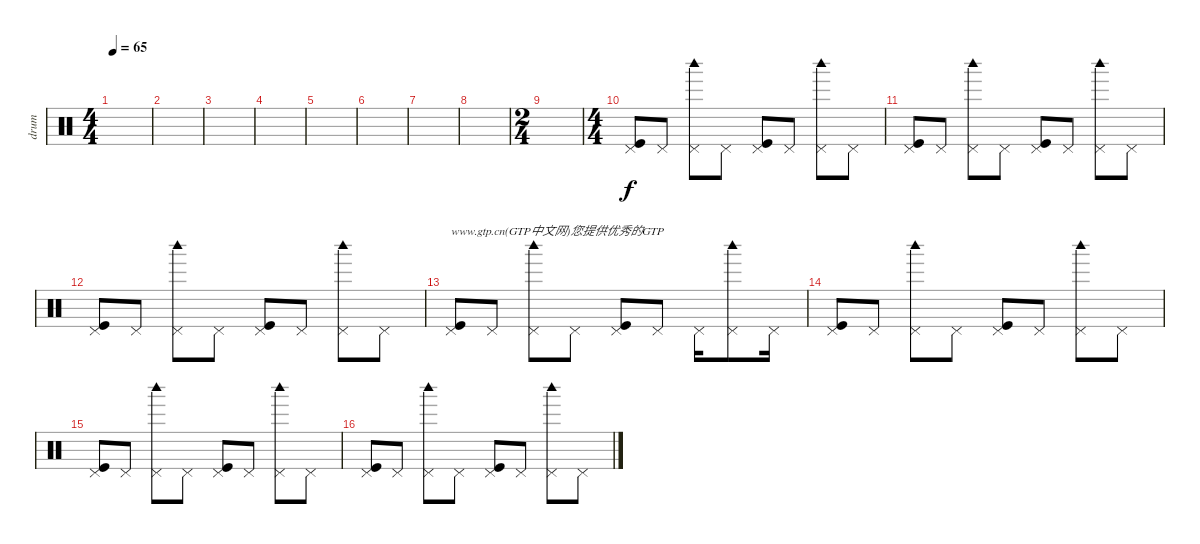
\track ("drum" "drum") {instrument percussion}
\staff {score}
\articulation defaults
\ts (4 4)
\tempo 65
\clef neutral
\ks c
|
|
|
|
|
|
|
|
\ts (2 4)
|
\ts (4 4)
("Pedal Hi-Hat (hit)" "Kick (hit)").8 "Pedal Hi-Hat (hit)".8 ("Pedal Hi-Hat (hit)" "Woodblock high (hit)").8 "Pedal Hi-Hat (hit)".8 ("Pedal Hi-Hat (hit)" "Kick (hit)").8 "Pedal Hi-Hat (hit)".8 ("Pedal Hi-Hat (hit)" "Woodblock high (hit)").8 "Pedal Hi-Hat (hit)".8 |
("Pedal Hi-Hat (hit)" "Kick (hit)").8 "Pedal Hi-Hat (hit)".8 ("Pedal Hi-Hat (hit)" "Woodblock high (hit)").8 "Pedal Hi-Hat (hit)".8 ("Pedal Hi-Hat (hit)" "Kick (hit)").8 "Pedal Hi-Hat (hit)".8 ("Pedal Hi-Hat (hit)" "Woodblock high (hit)").8 "Pedal Hi-Hat (hit)".8 |
("Pedal Hi-Hat (hit)" "Kick (hit)").8 "Pedal Hi-Hat (hit)".8 ("Pedal Hi-Hat (hit)" "Woodblock high (hit)").8 "Pedal Hi-Hat (hit)".8 ("Pedal Hi-Hat (hit)" "Kick (hit)").8 "Pedal Hi-Hat (hit)".8 ("Pedal Hi-Hat (hit)" "Woodblock high (hit)").8 "Pedal Hi-Hat (hit)".8 |
("Pedal Hi-Hat (hit)" "Kick (hit)").8{txt "www.gtp.cn(GTP中文网)您提供优秀的GTP"} "Pedal Hi-Hat (hit)".8 ("Pedal Hi-Hat (hit)" "Woodblock high (hit)").8 "Pedal Hi-Hat (hit)".8 ("Pedal Hi-Hat (hit)" "Kick (hit)").8 "Pedal Hi-Hat (hit)".8 "Pedal Hi-Hat (hit)".16 ("Pedal Hi-Hat (hit)" "Woodblock high (hit)").8 "Pedal Hi-Hat (hit)".16 |
("Pedal Hi-Hat (hit)" "Kick (hit)").8 "Pedal Hi-Hat (hit)".8 ("Pedal Hi-Hat (hit)" "Woodblock high (hit)").8 "Pedal Hi-Hat (hit)".8 ("Pedal Hi-Hat (hit)" "Kick (hit)").8 "Pedal Hi-Hat (hit)".8 ("Pedal Hi-Hat (hit)" "Woodblock high (hit)").8 "Pedal Hi-Hat (hit)".8 |
("Pedal Hi-Hat (hit)" "Kick (hit)").8 "Pedal Hi-Hat (hit)".8 ("Pedal Hi-Hat (hit)" "Woodblock high (hit)").8 "Pedal Hi-Hat (hit)".8 ("Pedal Hi-Hat (hit)" "Kick (hit)").8 "Pedal Hi-Hat (hit)".8 ("Pedal Hi-Hat (hit)" "Woodblock high (hit)").8 "Pedal Hi-Hat (hit)".8 |
("Pedal Hi-Hat (hit)" "Kick (hit)").8 "Pedal Hi-Hat (hit)".8 ("Pedal Hi-Hat (hit)" "Woodblock high (hit)").8 "Pedal Hi-Hat (hit)".8 ("Pedal Hi-Hat (hit)" "Kick (hit)").8 "Pedal Hi-Hat (hit)".8 ("Pedal Hi-Hat (hit)" "Woodblock high (hit)").8 "Pedal Hi-Hat (hit)".8
